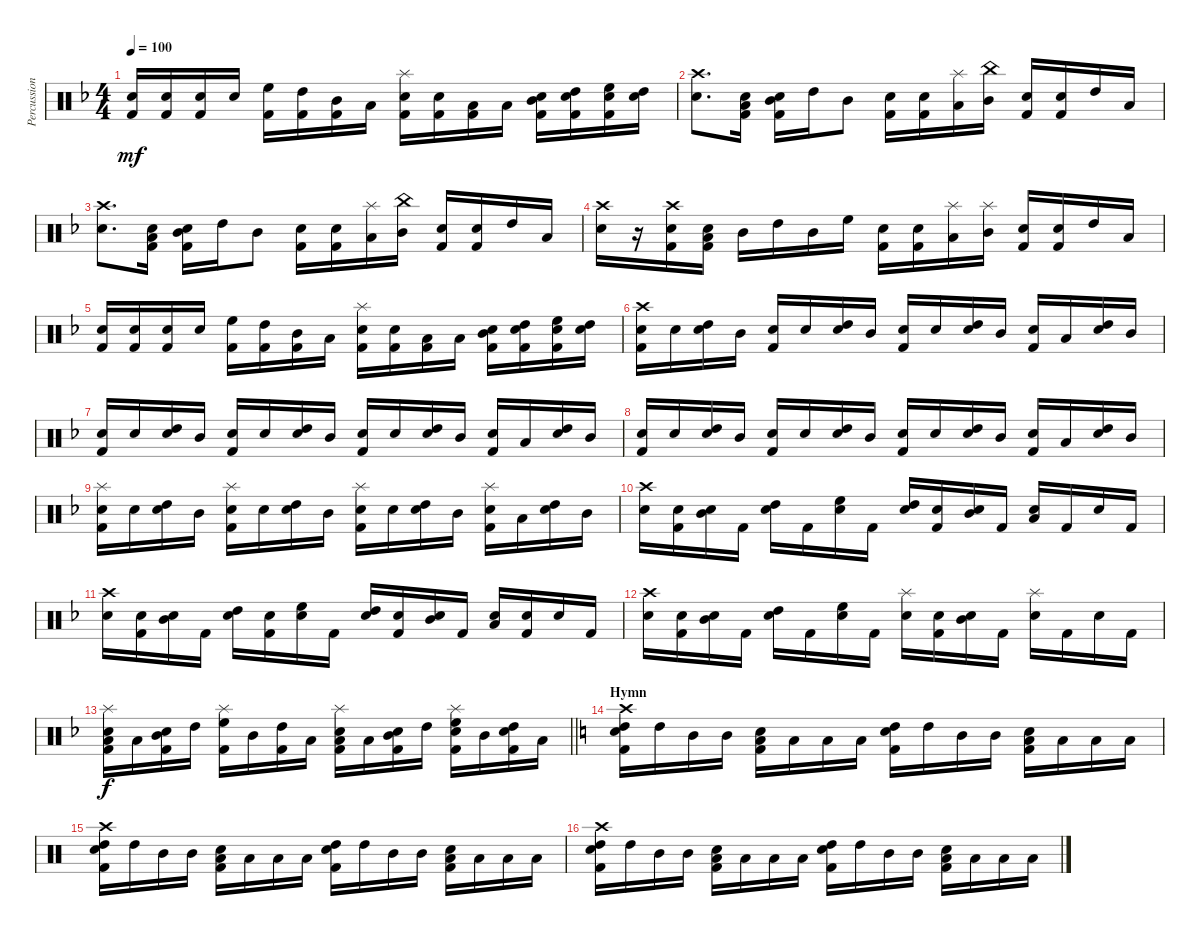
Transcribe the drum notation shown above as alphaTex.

\track ("Percussion" "Percussion") {instrument percussion}
\staff {score}
\articulation defaults
\ts (4 4)
\tempo 100
\clef neutral
\ks dminor
("Snare (hit) 2" "Kick (hit) 2").16{dy mf} ("Snare (hit) 2" "Kick (hit) 2").16 ("Snare (hit) 2" "Kick (hit) 2").16 "Snare (hit) 2".16 ("High Floor Tom (hit)" "Kick (hit) 2").16 ("High Tom (hit)" "Kick (hit) 2").16 ("Mid Tom (hit)" "Kick (hit) 2").16 "Low Tom (hit)".16 ("Splash (hit)" "Snare (hit) 2" "Kick (hit) 2").16 ("Snare (hit) 2" "Kick (hit) 2").16 ("Low Floor Tom (hit)" "Kick (hit) 2").16 "Low Tom (hit)".16 ("Mid Tom (hit)" "Snare (hit) 2" "Kick (hit) 2").16 ("High Tom (hit)" "Snare (hit) 2" "Kick (hit) 2").16 ("High Floor Tom (hit)" "Snare (hit) 2" "Kick (hit) 2").16 ("High Tom (hit)" "Snare (hit) 2").16 |
("Crash high (hit)" "Snare (hit) 2").8{d} ("Low Tom (hit)" "Snare (hit) 2" "Kick (hit) 2").16 ("Mid Tom (hit)" "Snare (hit) 2" "Kick (hit) 2").16 "High Tom (hit)".16 "Mid Tom (hit)".8 ("Snare (hit) 2" "Kick (hit) 2").16 ("Snare (hit) 2" "Kick (hit) 2").16 ("Splash (hit)" "Low Tom (hit)").16 ("China (hit)" "Mid Tom (hit)").16 ("Snare (hit) 2" "Kick (hit) 2").16 ("Snare (hit) 2" "Kick (hit) 2").16 "High Tom (hit)".16 "Low Tom (hit)".16 |
("Crash high (hit)" "Snare (hit) 2").8{d} ("Low Tom (hit)" "Snare (hit) 2" "Kick (hit) 2").16 ("Mid Tom (hit)" "Snare (hit) 2" "Kick (hit) 2").16 "High Tom (hit)".16 "Mid Tom (hit)".8 ("Snare (hit) 2" "Kick (hit) 2").16 ("Snare (hit) 2" "Kick (hit) 2").16 ("Splash (hit)" "Low Tom (hit)").16 ("China (hit)" "Mid Tom (hit)").16 ("Snare (hit) 2" "Kick (hit) 2").16 ("Snare (hit) 2" "Kick (hit) 2").16 "High Tom (hit)".16 "Low Tom (hit)".16 |
("Crash high (hit)" "Snare (hit) 2").16 r.16 ("Crash high (hit)" "Snare (hit) 2" "Kick (hit) 2").16 ("Low Tom (hit)" "Snare (hit) 2" "Kick (hit) 2").16 "Mid Tom (hit)".16 "High Tom (hit)".16 "Mid Tom (hit)".16 "High Floor Tom (hit)".16 ("Snare (hit) 2" "Kick (hit) 2").16 ("Snare (hit) 2" "Kick (hit) 2").16 ("Splash (hit)" "Low Tom (hit)").16 ("Splash (hit)" "Mid Tom (hit)").16 ("Snare (hit) 2" "Kick (hit) 2").16 ("Snare (hit) 2" "Kick (hit) 2").16 "High Tom (hit)".16 "Low Tom (hit)".16 |
("Snare (hit) 2" "Kick (hit) 2").16 ("Snare (hit) 2" "Kick (hit) 2").16 ("Snare (hit) 2" "Kick (hit) 2").16 "Snare (hit) 2".16 ("High Floor Tom (hit)" "Kick (hit) 2").16 ("High Tom (hit)" "Kick (hit) 2").16 ("Mid Tom (hit)" "Kick (hit) 2").16 "Low Tom (hit)".16 ("Splash (hit)" "Snare (hit) 2" "Kick (hit) 2").16 ("Snare (hit) 2" "Kick (hit) 2").16 ("Low Floor Tom (hit)" "Kick (hit) 2").16 "Low Tom (hit)".16 ("Mid Tom (hit)" "Snare (hit) 2" "Kick (hit) 2").16 ("High Tom (hit)" "Snare (hit) 2" "Kick (hit) 2").16 ("High Floor Tom (hit)" "Snare (hit) 2" "Kick (hit) 2").16 ("High Tom (hit)" "Snare (hit) 2").16 |
("Crash high (hit)" "Snare (hit) 2" "Kick (hit) 2").16 "Snare (hit) 2".16 ("High Tom (hit)" "Snare (hit) 2").16 "Mid Tom (hit)".16 ("Snare (hit) 2" "Kick (hit) 2").16 "Snare (hit) 2".16 ("High Tom (hit)" "Snare (hit) 2").16 "Mid Tom (hit)".16 ("Snare (hit) 2" "Kick (hit) 2").16 "Snare (hit) 2".16 ("High Tom (hit)" "Snare (hit) 2").16 "Mid Tom (hit)".16 ("Snare (hit) 2" "Kick (hit) 2").16 "Low Floor Tom (hit)".16 ("High Tom (hit)" "Snare (hit) 2").16 "Mid Tom (hit)".16 |
("Snare (hit) 2" "Kick (hit) 2").16 "Snare (hit) 2".16 ("High Tom (hit)" "Snare (hit) 2").16 "Mid Tom (hit)".16 ("Snare (hit) 2" "Kick (hit) 2").16 "Snare (hit) 2".16 ("High Tom (hit)" "Snare (hit) 2").16 "Mid Tom (hit)".16 ("Snare (hit) 2" "Kick (hit) 2").16 "Snare (hit) 2".16 ("High Tom (hit)" "Snare (hit) 2").16 "Mid Tom (hit)".16 ("Snare (hit) 2" "Kick (hit) 2").16 "Low Floor Tom (hit)".16 ("High Tom (hit)" "Snare (hit) 2").16 "Mid Tom (hit)".16 |
("Snare (hit) 2" "Kick (hit) 2").16 "Snare (hit) 2".16 ("High Tom (hit)" "Snare (hit) 2").16 "Mid Tom (hit)".16 ("Snare (hit) 2" "Kick (hit) 2").16 "Snare (hit) 2".16 ("High Tom (hit)" "Snare (hit) 2").16 "Mid Tom (hit)".16 ("Snare (hit) 2" "Kick (hit) 2").16 "Snare (hit) 2".16 ("High Tom (hit)" "Snare (hit) 2").16 "Mid Tom (hit)".16 ("Snare (hit) 2" "Kick (hit) 2").16 "Low Floor Tom (hit)".16 ("High Tom (hit)" "Snare (hit) 2").16 "Mid Tom (hit)".16 |
("Splash (hit)" "Snare (hit) 2" "Kick (hit) 2").16 "Snare (hit) 2".16 ("High Tom (hit)" "Snare (hit) 2").16 "Mid Tom (hit)".16 ("Splash (hit)" "Snare (hit) 2" "Kick (hit) 2").16 "Snare (hit) 2".16 ("High Tom (hit)" "Snare (hit) 2").16 "Mid Tom (hit)".16 ("Splash (hit)" "Snare (hit) 2" "Kick (hit) 2").16 "Snare (hit) 2".16 ("High Tom (hit)" "Snare (hit) 2").16 "Mid Tom (hit)".16 ("Splash (hit)" "Snare (hit) 2" "Kick (hit) 2").16 "Low Floor Tom (hit)".16 ("High Tom (hit)" "Snare (hit) 2").16 "Mid Tom (hit)".16 |
("Crash high (hit)" "Snare (hit) 2").16 ("Snare (hit) 2" "Kick (hit) 2").16 ("Mid Tom (hit)" "Snare (hit) 2").16 "Kick (hit) 2".16 ("High Tom (hit)" "Snare (hit) 2").16 "Kick (hit) 2".16 ("High Floor Tom (hit)" "Snare (hit) 2").16 "Kick (hit) 2".16 ("High Tom (hit)" "Snare (hit) 2").16 ("Snare (hit) 2" "Kick (hit) 2").16 ("Mid Tom (hit)" "Snare (hit) 2").16 "Kick (hit) 2".16 ("Low Tom (hit)" "Snare (hit) 2").16 "Kick (hit) 2".16 "Snare (hit) 2".16 "Kick (hit) 2".16 |
("Crash high (hit)" "Snare (hit) 2").16 ("Snare (hit) 2" "Kick (hit) 2").16 ("Mid Tom (hit)" "Snare (hit) 2").16 "Kick (hit) 2".16 ("High Tom (hit)" "Snare (hit) 2").16 ("Snare (hit) 2" "Kick (hit) 2").16 ("High Floor Tom (hit)" "Snare (hit) 2").16 "Kick (hit) 2".16 ("High Tom (hit)" "Snare (hit) 2").16 ("Snare (hit) 2" "Kick (hit) 2").16 ("Mid Tom (hit)" "Snare (hit) 2").16 "Kick (hit) 2".16 ("Low Tom (hit)" "Snare (hit) 2").16 ("Snare (hit) 2" "Kick (hit) 2").16 "Snare (hit) 2".16 "Kick (hit) 2".16 |
("Crash high (hit)" "Snare (hit) 2").16 ("Snare (hit) 2" "Kick (hit) 2").16 ("Mid Tom (hit)" "Snare (hit) 2").16 "Kick (hit) 2".16 ("High Tom (hit)" "Snare (hit) 2").16 "Kick (hit) 2".16 ("High Floor Tom (hit)" "Snare (hit) 2").16 "Kick (hit) 2".16 ("Splash (hit)" "Snare (hit) 2").16 ("Snare (hit) 2" "Kick (hit) 2").16 ("Mid Tom (hit)" "Snare (hit) 2").16 "Kick (hit) 2".16 ("Splash (hit)" "Snare (hit) 2").16 "Kick (hit) 2".16 "Snare (hit) 2".16 "Kick (hit) 2".16 |
\barLineRight lightlight
("Splash (hit)" "Low Floor Tom (hit)" "Snare (hit) 2" "Kick (hit) 2").16{dy f} "Low Tom (hit)".16 ("Mid Tom (hit)" "Snare (hit) 2" "Kick (hit) 2").16 "High Tom (hit)".16 ("Splash (hit)" "High Floor Tom (hit)" "Kick (hit) 2").16 "Mid Tom (hit)".16 ("High Tom (hit)" "Kick (hit) 2").16 "Low Tom (hit)".16 ("Splash (hit)" "Low Floor Tom (hit)" "Snare (hit) 2" "Kick (hit) 2").16 "Low Tom (hit)".16 ("Mid Tom (hit)" "Snare (hit) 2" "Kick (hit) 2").16 "High Tom (hit)".16 ("Splash (hit)" "High Floor Tom (hit)" "Snare (hit) 2" "Kick (hit) 2").16 "Mid Tom (hit)".16 ("High Tom (hit)" "Snare (hit) 2" "Kick (hit) 2").16 "Low Tom (hit)".16 |
\section ("" "Hymn")
\ks c
("Crash high (hit)" "High Tom (hit)" "Snare (hit) 2" "Kick (hit) 2").16 "High Tom (hit)".16 "Mid Tom (hit)".16 "Mid Tom (hit)".16 ("Low Tom (hit)" "Snare (hit) 2" "Kick (hit) 2").16 "Low Tom (hit)".16 "Low Floor Tom (hit)".16 "Low Floor Tom (hit)".16 ("High Tom (hit)" "Snare (hit) 2" "Kick (hit) 2").16 "High Tom (hit)".16 "Mid Tom (hit)".16 "Mid Tom (hit)".16 ("Low Tom (hit)" "Snare (hit) 2" "Kick (hit) 2").16 "Low Tom (hit)".16 "Low Floor Tom (hit)".16 "Low Floor Tom (hit)".16 |
("Crash high (hit)" "High Tom (hit)" "Snare (hit) 2" "Kick (hit) 2").16 "High Tom (hit)".16 "Mid Tom (hit)".16 "Mid Tom (hit)".16 ("Low Tom (hit)" "Snare (hit) 2" "Kick (hit) 2").16 "Low Tom (hit)".16 "Low Floor Tom (hit)".16 "Low Floor Tom (hit)".16 ("High Tom (hit)" "Snare (hit) 2" "Kick (hit) 2").16 "High Tom (hit)".16 "Mid Tom (hit)".16 "Mid Tom (hit)".16 ("Low Tom (hit)" "Snare (hit) 2" "Kick (hit) 2").16 "Low Tom (hit)".16 "Low Floor Tom (hit)".16 "Low Floor Tom (hit)".16 |
("Crash high (hit)" "High Tom (hit)" "Snare (hit) 2" "Kick (hit) 2").16 "High Tom (hit)".16 "Mid Tom (hit)".16 "Mid Tom (hit)".16 ("Low Tom (hit)" "Snare (hit) 2" "Kick (hit) 2").16 "Low Tom (hit)".16 "Low Floor Tom (hit)".16 "Low Floor Tom (hit)".16 ("High Tom (hit)" "Snare (hit) 2" "Kick (hit) 2").16 "High Tom (hit)".16 "Mid Tom (hit)".16 "Mid Tom (hit)".16 ("Low Tom (hit)" "Snare (hit) 2" "Kick (hit) 2").16 "Low Tom (hit)".16 "Low Floor Tom (hit)".16 "Low Floor Tom (hit)".16
